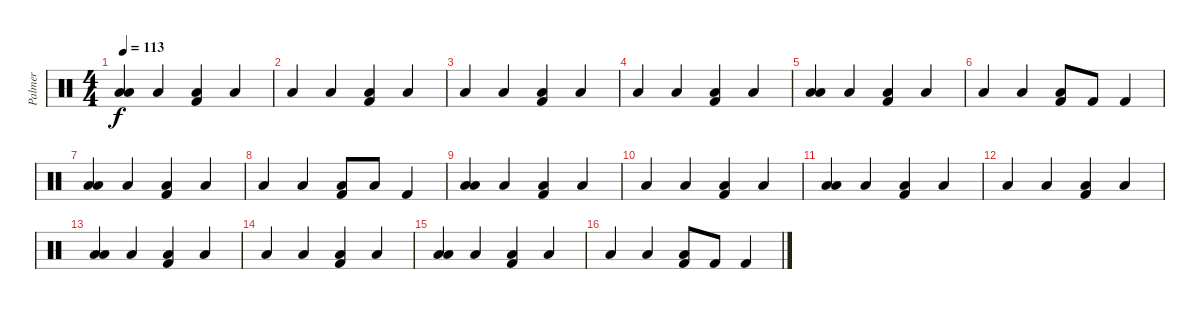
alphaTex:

\track ("Palmer" "Palmer") {instrument percussion}
\staff {score}
\articulation defaults
\ts (4 4)
\tempo 113
\clef neutral
\ks c
("Low Floor Tom (hit)" "Low Tom (hit)").4{dy f} "Low Floor Tom (hit)".4 ("Low Floor Tom (hit)" "Kick (hit) 2").4 "Low Floor Tom (hit)".4 |
"Low Floor Tom (hit)".4 "Low Floor Tom (hit)".4 ("Low Floor Tom (hit)" "Kick (hit) 2").4 "Low Floor Tom (hit)".4 |
"Low Floor Tom (hit)".4 "Low Floor Tom (hit)".4 ("Low Floor Tom (hit)" "Kick (hit) 2").4 "Low Floor Tom (hit)".4 |
"Low Floor Tom (hit)".4 "Low Floor Tom (hit)".4 ("Low Floor Tom (hit)" "Kick (hit) 2").4 "Low Floor Tom (hit)".4 |
("Low Floor Tom (hit)" "Low Tom (hit)").4 "Low Floor Tom (hit)".4 ("Low Floor Tom (hit)" "Kick (hit) 2").4 "Low Floor Tom (hit)".4 |
"Low Floor Tom (hit)".4 "Low Floor Tom (hit)".4 ("Low Floor Tom (hit)" "Kick (hit) 2").8 "Kick (hit) 2".8 "Kick (hit) 2".4 |
("Low Floor Tom (hit)" "Low Tom (hit)").4 "Low Floor Tom (hit)".4 ("Low Floor Tom (hit)" "Kick (hit) 2").4 "Low Floor Tom (hit)".4 |
"Low Floor Tom (hit)".4 "Low Floor Tom (hit)".4 ("Low Floor Tom (hit)" "Kick (hit) 2").8 "Low Floor Tom (hit)".8 "Kick (hit) 2".4 |
("Low Floor Tom (hit)" "Low Tom (hit)").4 "Low Floor Tom (hit)".4 ("Low Floor Tom (hit)" "Kick (hit) 2").4 "Low Floor Tom (hit)".4 |
"Low Floor Tom (hit)".4 "Low Floor Tom (hit)".4 ("Low Floor Tom (hit)" "Kick (hit) 2").4 "Low Floor Tom (hit)".4 |
("Low Floor Tom (hit)" "Low Tom (hit)").4 "Low Floor Tom (hit)".4 ("Low Floor Tom (hit)" "Kick (hit) 2").4 "Low Floor Tom (hit)".4 |
"Low Floor Tom (hit)".4 "Low Floor Tom (hit)".4 ("Low Floor Tom (hit)" "Kick (hit) 2").4 "Low Floor Tom (hit)".4 |
("Low Floor Tom (hit)" "Low Tom (hit)").4 "Low Floor Tom (hit)".4 ("Low Floor Tom (hit)" "Kick (hit) 2").4 "Low Floor Tom (hit)".4 |
"Low Floor Tom (hit)".4 "Low Floor Tom (hit)".4 ("Low Floor Tom (hit)" "Kick (hit) 2").4 "Low Floor Tom (hit)".4 |
("Low Floor Tom (hit)" "Low Tom (hit)").4 "Low Floor Tom (hit)".4 ("Low Floor Tom (hit)" "Kick (hit) 2").4 "Low Floor Tom (hit)".4 |
"Low Floor Tom (hit)".4 "Low Floor Tom (hit)".4 ("Low Floor Tom (hit)" "Kick (hit) 2").8 "Kick (hit) 2".8 "Kick (hit) 2".4
